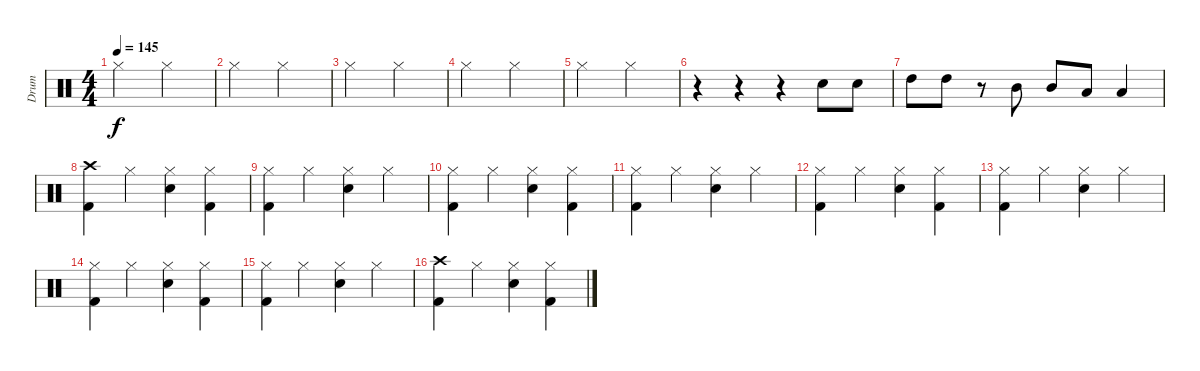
\track ("Drum" "Drum") {instrument percussion}
\staff {score}
\articulation defaults
\ts (4 4)
\tempo 145
\clef neutral
\ks c "Hi-Hat (closed)".2{dy f} "Hi-Hat (closed)".2
|
"Hi-Hat (closed)".2 "Hi-Hat (closed)".2 |
"Hi-Hat (closed)".2 "Hi-Hat (closed)".2 |
"Hi-Hat (closed)".2 "Hi-Hat (closed)".2 |
"Hi-Hat (closed)".2 "Hi-Hat (closed)".2 |
r.4 r.4 r.4 "Snare (hit) 2".8 "Snare (hit) 2".8 |
"High Tom (hit)".8 "High Tom (hit)".8 r.8 "Mid Tom (hit)".8 "Mid Tom (hit)".8 "Low Tom (hit)".8 "Low Tom (hit)".4 |
("Crash high (hit)" "Kick (hit) 2").4 "Hi-Hat (closed)".4 ("Hi-Hat (closed)" "Snare (hit) 2").4 ("Hi-Hat (closed)" "Kick (hit) 2").4 |
("Hi-Hat (closed)" "Kick (hit) 2").4 "Hi-Hat (closed)".4 ("Hi-Hat (closed)" "Snare (hit) 2").4 "Hi-Hat (closed)".4 |
("Hi-Hat (closed)" "Kick (hit) 2").4 "Hi-Hat (closed)".4 ("Hi-Hat (closed)" "Snare (hit) 2").4 ("Hi-Hat (closed)" "Kick (hit) 2").4 |
("Hi-Hat (closed)" "Kick (hit) 2").4 "Hi-Hat (closed)".4 ("Hi-Hat (closed)" "Snare (hit) 2").4 "Hi-Hat (closed)".4 |
("Hi-Hat (closed)" "Kick (hit) 2").4 "Hi-Hat (closed)".4 ("Hi-Hat (closed)" "Snare (hit) 2").4 ("Hi-Hat (closed)" "Kick (hit) 2").4 |
("Hi-Hat (closed)" "Kick (hit) 2").4 "Hi-Hat (closed)".4 ("Hi-Hat (closed)" "Snare (hit) 2").4 "Hi-Hat (closed)".4 |
("Hi-Hat (closed)" "Kick (hit) 2").4 "Hi-Hat (closed)".4 ("Hi-Hat (closed)" "Snare (hit) 2").4 ("Hi-Hat (closed)" "Kick (hit) 2").4 |
("Hi-Hat (closed)" "Kick (hit) 2").4 "Hi-Hat (closed)".4 ("Hi-Hat (closed)" "Snare (hit) 2").4 "Hi-Hat (closed)".4 |
("Crash high (hit)" "Kick (hit) 2").4 "Hi-Hat (closed)".4 ("Hi-Hat (closed)" "Snare (hit) 2").4 ("Hi-Hat (closed)" "Kick (hit) 2").4
